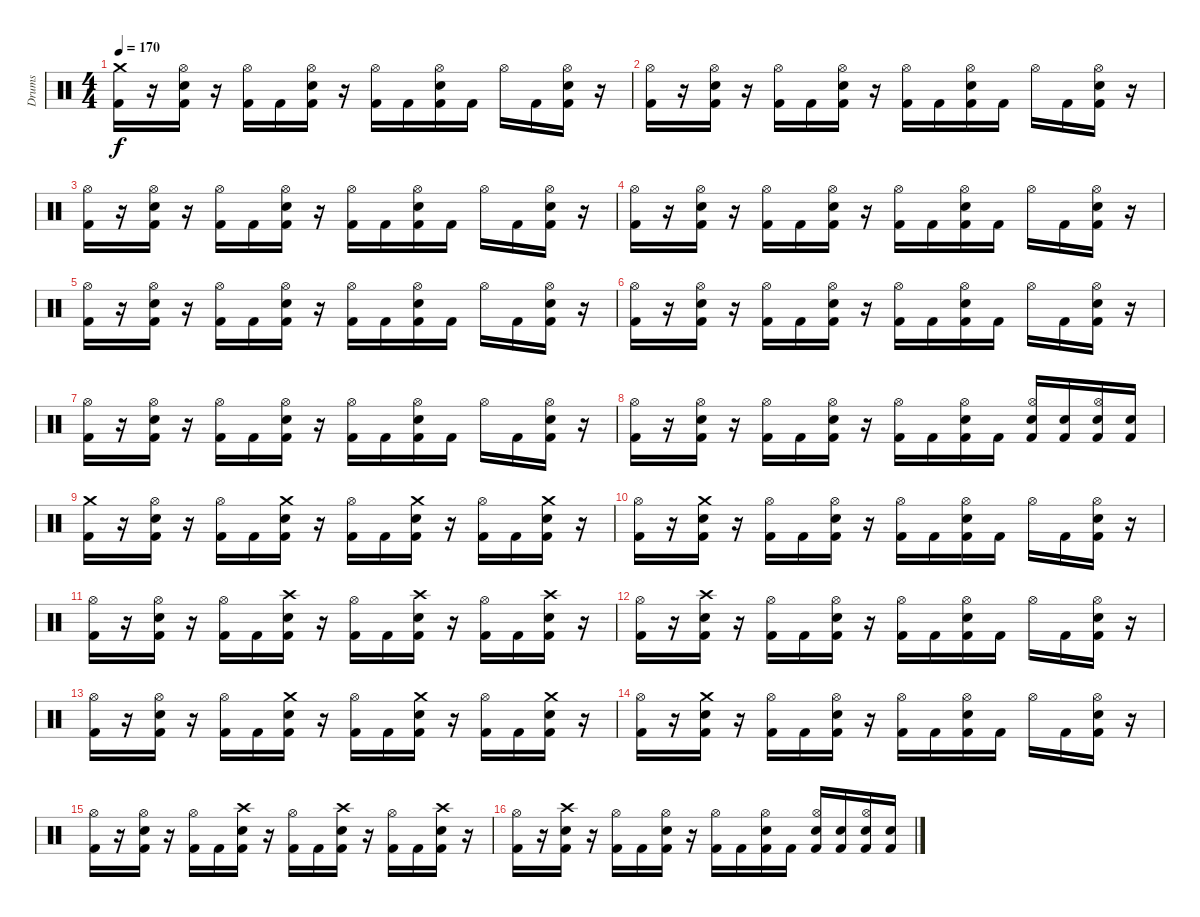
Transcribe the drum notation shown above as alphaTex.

\track ("Drums" "Drums") {instrument percussion}
\staff {score}
\articulation defaults
\ts (4 4)
\section ("" "")
\tempo 170
\clef neutral
\ks c
("Crash medium (hit)" "Kick (hit) 2").16{dy f} r.16 ("Hi-Hat (open)" "Electric Snare (hit)" "Kick (hit) 2").16 r.16 ("Hi-Hat (open)" "Kick (hit) 2").16 "Kick (hit) 2".16 ("Hi-Hat (open)" "Electric Snare (hit)" "Kick (hit) 2").16 r.16 ("Hi-Hat (open)" "Kick (hit) 2").16 "Kick (hit) 2".16 ("Hi-Hat (open)" "Electric Snare (hit)" "Kick (hit) 2").16 "Kick (hit) 2".16 "Hi-Hat (open)".16 "Kick (hit) 2".16 ("Hi-Hat (open)" "Electric Snare (hit)" "Kick (hit) 2").16 r.16 |
("Hi-Hat (open)" "Kick (hit) 2").16 r.16 ("Hi-Hat (open)" "Electric Snare (hit)" "Kick (hit) 2").16 r.16 ("Hi-Hat (open)" "Kick (hit) 2").16 "Kick (hit) 2".16 ("Hi-Hat (open)" "Electric Snare (hit)" "Kick (hit) 2").16 r.16 ("Hi-Hat (open)" "Kick (hit) 2").16 "Kick (hit) 2".16 ("Hi-Hat (open)" "Electric Snare (hit)" "Kick (hit) 2").16 "Kick (hit) 2".16 "Hi-Hat (open)".16 "Kick (hit) 2".16 ("Hi-Hat (open)" "Electric Snare (hit)" "Kick (hit) 2").16 r.16 |
("Hi-Hat (open)" "Kick (hit) 2").16 r.16 ("Hi-Hat (open)" "Electric Snare (hit)" "Kick (hit) 2").16 r.16 ("Hi-Hat (open)" "Kick (hit) 2").16 "Kick (hit) 2".16 ("Hi-Hat (open)" "Electric Snare (hit)" "Kick (hit) 2").16 r.16 ("Hi-Hat (open)" "Kick (hit) 2").16 "Kick (hit) 2".16 ("Hi-Hat (open)" "Electric Snare (hit)" "Kick (hit) 2").16 "Kick (hit) 2".16 "Hi-Hat (open)".16 "Kick (hit) 2".16 ("Hi-Hat (open)" "Electric Snare (hit)" "Kick (hit) 2").16 r.16 |
("Hi-Hat (open)" "Kick (hit) 2").16 r.16 ("Hi-Hat (open)" "Electric Snare (hit)" "Kick (hit) 2").16 r.16 ("Hi-Hat (open)" "Kick (hit) 2").16 "Kick (hit) 2".16 ("Hi-Hat (open)" "Electric Snare (hit)" "Kick (hit) 2").16 r.16 ("Hi-Hat (open)" "Kick (hit) 2").16 "Kick (hit) 2".16 ("Hi-Hat (open)" "Electric Snare (hit)" "Kick (hit) 2").16 "Kick (hit) 2".16 "Hi-Hat (open)".16 "Kick (hit) 2".16 ("Hi-Hat (open)" "Electric Snare (hit)" "Kick (hit) 2").16 r.16 |
("Hi-Hat (open)" "Kick (hit) 2").16 r.16 ("Hi-Hat (open)" "Electric Snare (hit)" "Kick (hit) 2").16 r.16 ("Hi-Hat (open)" "Kick (hit) 2").16 "Kick (hit) 2".16 ("Hi-Hat (open)" "Electric Snare (hit)" "Kick (hit) 2").16 r.16 ("Hi-Hat (open)" "Kick (hit) 2").16 "Kick (hit) 2".16 ("Hi-Hat (open)" "Electric Snare (hit)" "Kick (hit) 2").16 "Kick (hit) 2".16 "Hi-Hat (open)".16 "Kick (hit) 2".16 ("Hi-Hat (open)" "Electric Snare (hit)" "Kick (hit) 2").16 r.16 |
("Hi-Hat (open)" "Kick (hit) 2").16 r.16 ("Hi-Hat (open)" "Electric Snare (hit)" "Kick (hit) 2").16 r.16 ("Hi-Hat (open)" "Kick (hit) 2").16 "Kick (hit) 2".16 ("Hi-Hat (open)" "Electric Snare (hit)" "Kick (hit) 2").16 r.16 ("Hi-Hat (open)" "Kick (hit) 2").16 "Kick (hit) 2".16 ("Hi-Hat (open)" "Electric Snare (hit)" "Kick (hit) 2").16 "Kick (hit) 2".16 "Hi-Hat (open)".16 "Kick (hit) 2".16 ("Hi-Hat (open)" "Electric Snare (hit)" "Kick (hit) 2").16 r.16 |
("Hi-Hat (open)" "Kick (hit) 2").16 r.16 ("Hi-Hat (open)" "Electric Snare (hit)" "Kick (hit) 2").16 r.16 ("Hi-Hat (open)" "Kick (hit) 2").16 "Kick (hit) 2".16 ("Hi-Hat (open)" "Electric Snare (hit)" "Kick (hit) 2").16 r.16 ("Hi-Hat (open)" "Kick (hit) 2").16 "Kick (hit) 2".16 ("Hi-Hat (open)" "Electric Snare (hit)" "Kick (hit) 2").16 "Kick (hit) 2".16 "Hi-Hat (open)".16 "Kick (hit) 2".16 ("Hi-Hat (open)" "Electric Snare (hit)" "Kick (hit) 2").16 r.16 |
("Hi-Hat (open)" "Kick (hit) 2").16 r.16 ("Hi-Hat (open)" "Electric Snare (hit)" "Kick (hit) 2").16 r.16 ("Hi-Hat (open)" "Kick (hit) 2").16 "Kick (hit) 2".16 ("Hi-Hat (open)" "Electric Snare (hit)" "Kick (hit) 2").16 r.16 ("Hi-Hat (open)" "Kick (hit) 2").16 "Kick (hit) 2".16 ("Hi-Hat (open)" "Electric Snare (hit)" "Kick (hit) 2").16 "Kick (hit) 2".16 ("Hi-Hat (open)" "Electric Snare (hit)" "Kick (hit) 2").16 ("Electric Snare (hit)" "Kick (hit) 2").16 ("Hi-Hat (open)" "Electric Snare (hit)" "Kick (hit) 2").16 ("Electric Snare (hit)" "Kick (hit) 2").16 |
\section ("" "")
("Crash medium (hit)" "Kick (hit) 2").16 r.16 ("Hi-Hat (open)" "Electric Snare (hit)" "Kick (hit) 2").16 r.16 ("Hi-Hat (open)" "Kick (hit) 2").16 "Kick (hit) 2".16 ("Crash medium (hit)" "Electric Snare (hit)" "Kick (hit) 2").16 r.16 ("Hi-Hat (open)" "Kick (hit) 2").16 "Kick (hit) 2".16 ("Crash medium (hit)" "Electric Snare (hit)" "Kick (hit) 2").16 r.16 ("Hi-Hat (open)" "Kick (hit) 2").16 "Kick (hit) 2".16 ("Crash medium (hit)" "Electric Snare (hit)" "Kick (hit) 2").16 r.16 |
("Hi-Hat (open)" "Kick (hit) 2").16 r.16 ("Crash medium (hit)" "Electric Snare (hit)" "Kick (hit) 2").16 r.16 ("Hi-Hat (open)" "Kick (hit) 2").16 "Kick (hit) 2".16 ("Hi-Hat (open)" "Electric Snare (hit)" "Kick (hit) 2").16 r.16 ("Hi-Hat (open)" "Kick (hit) 2").16 "Kick (hit) 2".16 ("Hi-Hat (open)" "Electric Snare (hit)" "Kick (hit) 2").16 "Kick (hit) 2".16 "Hi-Hat (open)".16 "Kick (hit) 2".16 ("Hi-Hat (open)" "Electric Snare (hit)" "Kick (hit) 2").16 r.16 |
("Hi-Hat (open)" "Kick (hit) 2").16 r.16 ("Hi-Hat (open)" "Electric Snare (hit)" "Kick (hit) 2").16 r.16 ("Hi-Hat (open)" "Kick (hit) 2").16 "Kick (hit) 2".16 ("Crash high (hit)" "Electric Snare (hit)" "Kick (hit) 2").16 r.16 ("Hi-Hat (open)" "Kick (hit) 2").16 "Kick (hit) 2".16 ("Crash high (hit)" "Electric Snare (hit)" "Kick (hit) 2").16 r.16 ("Hi-Hat (open)" "Kick (hit) 2").16 "Kick (hit) 2".16 ("Crash high (hit)" "Electric Snare (hit)" "Kick (hit) 2").16 r.16 |
("Hi-Hat (open)" "Kick (hit) 2").16 r.16 ("Crash high (hit)" "Electric Snare (hit)" "Kick (hit) 2").16 r.16 ("Hi-Hat (open)" "Kick (hit) 2").16 "Kick (hit) 2".16 ("Hi-Hat (open)" "Electric Snare (hit)" "Kick (hit) 2").16 r.16 ("Hi-Hat (open)" "Kick (hit) 2").16 "Kick (hit) 2".16 ("Hi-Hat (open)" "Electric Snare (hit)" "Kick (hit) 2").16 "Kick (hit) 2".16 "Hi-Hat (open)".16 "Kick (hit) 2".16 ("Hi-Hat (open)" "Electric Snare (hit)" "Kick (hit) 2").16 r.16 |
("Hi-Hat (open)" "Kick (hit) 2").16 r.16 ("Hi-Hat (open)" "Electric Snare (hit)" "Kick (hit) 2").16 r.16 ("Hi-Hat (open)" "Kick (hit) 2").16 "Kick (hit) 2".16 ("Crash medium (hit)" "Electric Snare (hit)" "Kick (hit) 2").16 r.16 ("Hi-Hat (open)" "Kick (hit) 2").16 "Kick (hit) 2".16 ("Crash medium (hit)" "Electric Snare (hit)" "Kick (hit) 2").16 r.16 ("Hi-Hat (open)" "Kick (hit) 2").16 "Kick (hit) 2".16 ("Crash medium (hit)" "Electric Snare (hit)" "Kick (hit) 2").16 r.16 |
("Hi-Hat (open)" "Kick (hit) 2").16 r.16 ("Crash medium (hit)" "Electric Snare (hit)" "Kick (hit) 2").16 r.16 ("Hi-Hat (open)" "Kick (hit) 2").16 "Kick (hit) 2".16 ("Hi-Hat (open)" "Electric Snare (hit)" "Kick (hit) 2").16 r.16 ("Hi-Hat (open)" "Kick (hit) 2").16 "Kick (hit) 2".16 ("Hi-Hat (open)" "Electric Snare (hit)" "Kick (hit) 2").16 "Kick (hit) 2".16 "Hi-Hat (open)".16 "Kick (hit) 2".16 ("Hi-Hat (open)" "Electric Snare (hit)" "Kick (hit) 2").16 r.16 |
("Hi-Hat (open)" "Kick (hit) 2").16 r.16 ("Hi-Hat (open)" "Electric Snare (hit)" "Kick (hit) 2").16 r.16 ("Hi-Hat (open)" "Kick (hit) 2").16 "Kick (hit) 2".16 ("Crash high (hit)" "Electric Snare (hit)" "Kick (hit) 2").16 r.16 ("Hi-Hat (open)" "Kick (hit) 2").16 "Kick (hit) 2".16 ("Crash high (hit)" "Electric Snare (hit)" "Kick (hit) 2").16 r.16 ("Hi-Hat (open)" "Kick (hit) 2").16 "Kick (hit) 2".16 ("Crash high (hit)" "Electric Snare (hit)" "Kick (hit) 2").16 r.16 |
("Hi-Hat (open)" "Kick (hit) 2").16 r.16 ("Crash high (hit)" "Electric Snare (hit)" "Kick (hit) 2").16 r.16 ("Hi-Hat (open)" "Kick (hit) 2").16 "Kick (hit) 2".16 ("Hi-Hat (open)" "Electric Snare (hit)" "Kick (hit) 2").16 r.16 ("Hi-Hat (open)" "Kick (hit) 2").16 "Kick (hit) 2".16 ("Hi-Hat (open)" "Electric Snare (hit)" "Kick (hit) 2").16 "Kick (hit) 2".16 ("Hi-Hat (open)" "Electric Snare (hit)" "Kick (hit) 2").16 ("Electric Snare (hit)" "Kick (hit) 2").16 ("Hi-Hat (open)" "Electric Snare (hit)" "Kick (hit) 2").16 ("Electric Snare (hit)" "Kick (hit) 2").16
